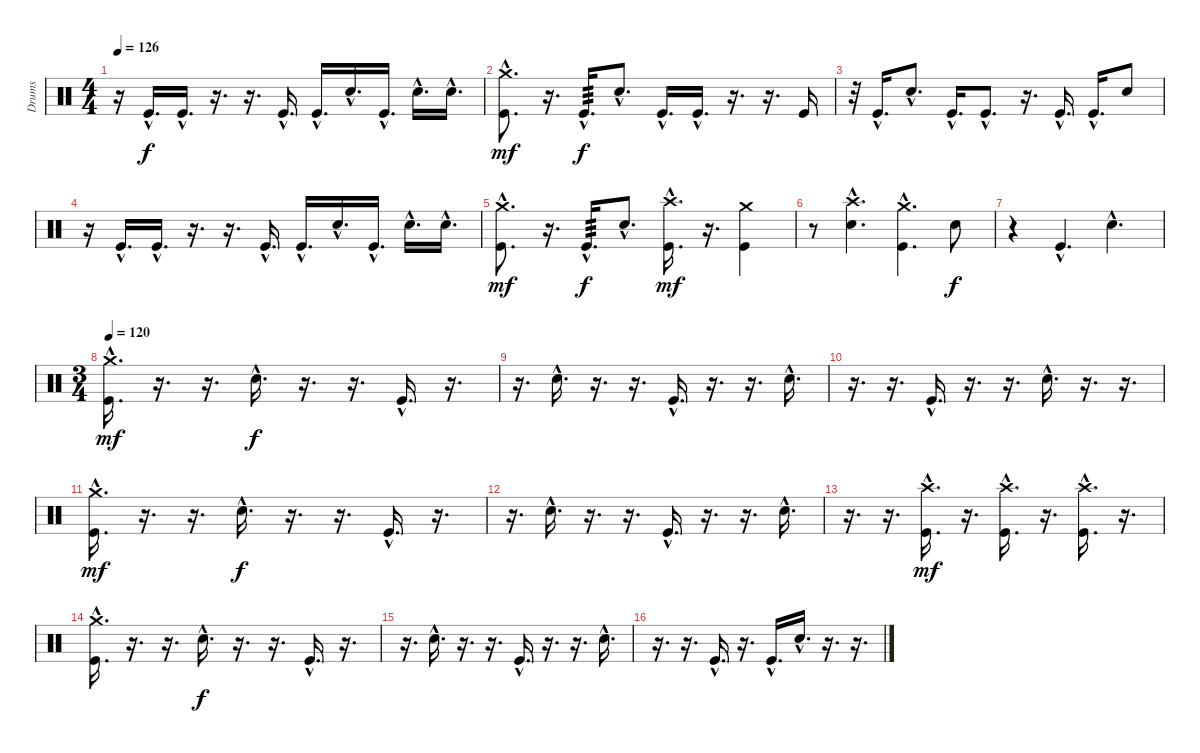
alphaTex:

\track ("Drums" "Drums") {instrument percussion}
\staff {score}
\articulation defaults
\ts (4 4)
\tempo 126
\clef neutral
\ks c
r.16{dy f} "Kick (hit)"{hac}.16{d} "Kick (hit)"{hac}.16{d} r.16{d} r.16{d} "Kick (hit)"{hac}.16{d} "Kick (hit)"{hac}.16{d} "Electric Snare (hit)"{hac}.16{d} "Kick (hit)"{hac}.16{d} "Electric Snare (hit)"{hac}.16{d} "Electric Snare (hit)"{hac}.16{d} |
("Crash medium (hit)"{hac} "Kick (hit)"{hac}).8{d dy mf} r.16{d} "Kick (hit)"{hac}.16{d tp 3 dy f} "Electric Snare (hit)"{hac}.8{d} "Kick (hit)"{hac}.16{d} "Kick (hit)"{hac}.16{d} r.16{d} r.16{d} "Kick (hit)".16 |
r.32 "Kick (hit)"{hac}.16{d} "Electric Snare (hit)"{hac}.8{d} "Kick (hit)"{hac}.16{d} "Kick (hit)"{hac}.8{d} r.16{d} "Kick (hit)"{hac}.16{d} "Kick (hit)"{hac}.16{d} "Electric Snare (hit)".8 |
r.16 "Kick (hit)"{hac}.16{d} "Kick (hit)"{hac}.16{d} r.16{d} r.16{d} "Kick (hit)"{hac}.16{d} "Kick (hit)"{hac}.16{d} "Electric Snare (hit)"{hac}.16{d} "Kick (hit)"{hac}.16{d} "Electric Snare (hit)"{hac}.16{d} "Electric Snare (hit)"{hac}.16{d} |
("Crash medium (hit)"{hac} "Kick (hit)"{hac}).8{d dy mf} r.16{d} "Kick (hit)"{hac}.16{d tp 3 dy f} "Electric Snare (hit)"{hac}.8{d} ("Crash high (hit)"{hac} "Kick (hit)"{hac}).16{d dy mf} r.16{d} ("Crash medium (hit)" "Kick (hit)").4 |
r.8 ("Crash high (hit)"{hac} "Electric Snare (hit)"{hac}).4{d} ("Crash medium (hit)"{hac} "Kick (hit)"{hac}).4{d} "Electric Snare (hit)".8{dy f} |
r.4 "Kick (hit)"{hac}.4{d} "Electric Snare (hit)"{hac}.4{d} |
\ts (3 4)
\section ("" "")
\tempo 120
("Crash medium (hit)"{hac} "Kick (hit)"{hac}).16{d dy mf} r.16{d} r.16{d} "Electric Snare (hit)"{hac}.16{d dy f} r.16{d} r.16{d} "Kick (hit)"{hac}.16{d} r.16{d} |
r.16{d} "Electric Snare (hit)"{hac}.16{d} r.16{d} r.16{d} "Kick (hit)"{hac}.16{d} r.16{d} r.16{d} "Electric Snare (hit)"{hac}.16{d} |
r.16{d} r.16{d} "Kick (hit)"{hac}.16{d} r.16{d} r.16{d} "Electric Snare (hit)"{hac}.16{d} r.16{d} r.16{d} |
("Crash medium (hit)"{hac} "Kick (hit)"{hac}).16{d dy mf} r.16{d} r.16{d} "Electric Snare (hit)"{hac}.16{d dy f} r.16{d} r.16{d} "Kick (hit)"{hac}.16{d} r.16{d} |
r.16{d} "Electric Snare (hit)"{hac}.16{d} r.16{d} r.16{d} "Kick (hit)"{hac}.16{d} r.16{d} r.16{d} "Electric Snare (hit)"{hac}.16{d} |
r.16{d} r.16{d} ("Crash high (hit)"{hac} "Kick (hit)"{hac}).16{d dy mf} r.16{d} ("Crash high (hit)"{hac} "Kick (hit)"{hac}).16{d} r.16{d} ("Crash high (hit)"{hac} "Kick (hit)"{hac}).16{d} r.16{d} |
("Crash medium (hit)"{hac} "Kick (hit)"{hac}).16{d} r.16{d} r.16{d} "Electric Snare (hit)"{hac}.16{d dy f} r.16{d} r.16{d} "Kick (hit)"{hac}.16{d} r.16{d} |
r.16{d} "Electric Snare (hit)"{hac}.16{d} r.16{d} r.16{d} "Kick (hit)"{hac}.16{d} r.16{d} r.16{d} "Electric Snare (hit)"{hac}.16{d} |
r.16{d} r.16{d} "Kick (hit)"{hac}.16{d} r.16{d} "Kick (hit)"{hac}.16{d} "Electric Snare (hit)"{hac}.16{d} r.16{d} r.16{d}
